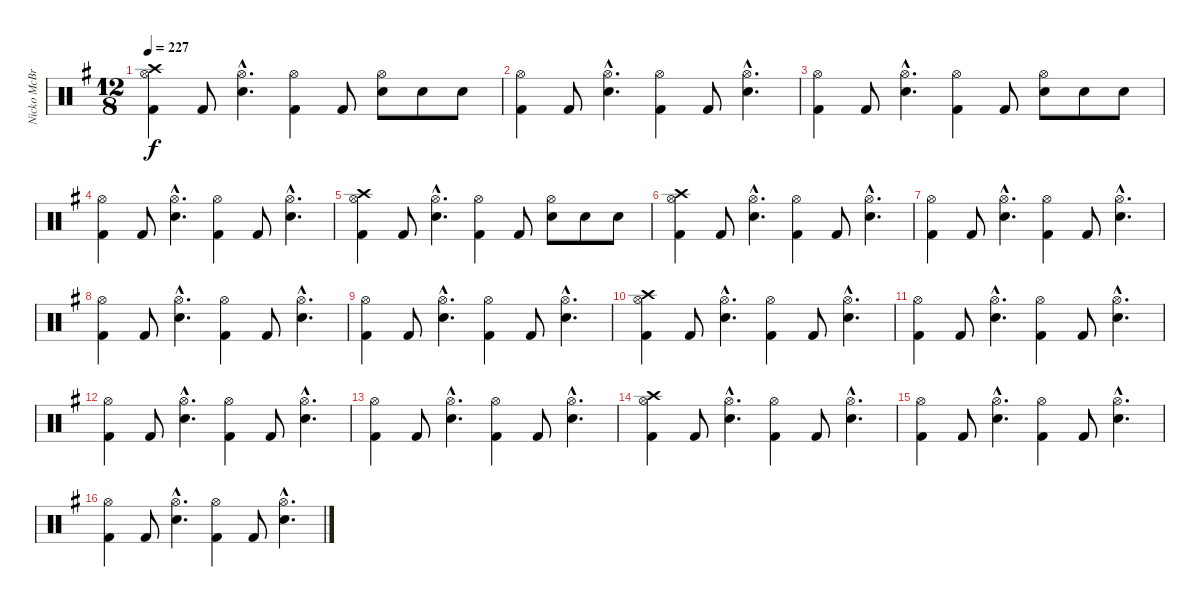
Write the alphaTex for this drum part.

\track ("Nicko McBrain" "Nicko McBr") {instrument percussion}
\staff {score}
\articulation defaults
\ts (12 8)
\tempo 227
\clef neutral
\ks g
("Kick (hit) 2" "Hi-Hat (open)" "Crash high (hit)").4{dy f} "Kick (hit) 2".8 ("Snare (hit) 2"{hac} "Hi-Hat (open)"{hac}).4{d} ("Kick (hit) 2" "Hi-Hat (open)").4 "Kick (hit) 2".8 ("Snare (hit) 2" "Hi-Hat (open)").8 "Snare (hit) 2".8 "Snare (hit) 2".8 |
("Kick (hit) 2" "Hi-Hat (open)").4 "Kick (hit) 2".8 ("Snare (hit) 2"{hac} "Hi-Hat (open)"{hac}).4{d} ("Kick (hit) 2" "Hi-Hat (open)").4 "Kick (hit) 2".8 ("Snare (hit) 2"{hac} "Hi-Hat (open)"{hac}).4{d} |
("Kick (hit) 2" "Hi-Hat (open)").4 "Kick (hit) 2".8 ("Snare (hit) 2"{hac} "Hi-Hat (open)"{hac}).4{d} ("Kick (hit) 2" "Hi-Hat (open)").4 "Kick (hit) 2".8 ("Snare (hit) 2" "Hi-Hat (open)").8 "Snare (hit) 2".8 "Snare (hit) 2".8 |
("Kick (hit) 2" "Hi-Hat (open)").4 "Kick (hit) 2".8 ("Snare (hit) 2"{hac} "Hi-Hat (open)"{hac}).4{d} ("Kick (hit) 2" "Hi-Hat (open)").4 "Kick (hit) 2".8 ("Snare (hit) 2"{hac} "Hi-Hat (open)"{hac}).4{d} |
("Kick (hit) 2" "Hi-Hat (open)" "Crash high (hit)").4 "Kick (hit) 2".8 ("Snare (hit) 2"{hac} "Hi-Hat (open)"{hac}).4{d} ("Kick (hit) 2" "Hi-Hat (open)").4 "Kick (hit) 2".8 ("Snare (hit) 2" "Hi-Hat (open)").8 "Snare (hit) 2".8 "Snare (hit) 2".8 |
("Kick (hit) 2" "Hi-Hat (open)" "Crash high (hit)").4 "Kick (hit) 2".8 ("Snare (hit) 2"{hac} "Hi-Hat (open)"{hac}).4{d} ("Kick (hit) 2" "Hi-Hat (open)").4 "Kick (hit) 2".8 ("Snare (hit) 2"{hac} "Hi-Hat (open)"{hac}).4{d} |
("Kick (hit) 2" "Hi-Hat (open)").4 "Kick (hit) 2".8 ("Snare (hit) 2"{hac} "Hi-Hat (open)"{hac}).4{d} ("Kick (hit) 2" "Hi-Hat (open)").4 "Kick (hit) 2".8 ("Snare (hit) 2"{hac} "Hi-Hat (open)"{hac}).4{d} |
("Kick (hit) 2" "Hi-Hat (open)").4 "Kick (hit) 2".8 ("Snare (hit) 2"{hac} "Hi-Hat (open)"{hac}).4{d} ("Kick (hit) 2" "Hi-Hat (open)").4 "Kick (hit) 2".8 ("Snare (hit) 2"{hac} "Hi-Hat (open)"{hac}).4{d} |
("Kick (hit) 2" "Hi-Hat (open)").4 "Kick (hit) 2".8 ("Snare (hit) 2"{hac} "Hi-Hat (open)"{hac}).4{d} ("Kick (hit) 2" "Hi-Hat (open)").4 "Kick (hit) 2".8 ("Snare (hit) 2"{hac} "Hi-Hat (open)"{hac}).4{d} |
("Kick (hit) 2" "Hi-Hat (open)" "Crash high (hit)").4 "Kick (hit) 2".8 ("Snare (hit) 2"{hac} "Hi-Hat (open)"{hac}).4{d} ("Kick (hit) 2" "Hi-Hat (open)").4 "Kick (hit) 2".8 ("Snare (hit) 2"{hac} "Hi-Hat (open)"{hac}).4{d} |
("Kick (hit) 2" "Hi-Hat (open)").4 "Kick (hit) 2".8 ("Snare (hit) 2"{hac} "Hi-Hat (open)"{hac}).4{d} ("Kick (hit) 2" "Hi-Hat (open)").4 "Kick (hit) 2".8 ("Snare (hit) 2"{hac} "Hi-Hat (open)"{hac}).4{d} |
("Kick (hit) 2" "Hi-Hat (open)").4 "Kick (hit) 2".8 ("Snare (hit) 2"{hac} "Hi-Hat (open)"{hac}).4{d} ("Kick (hit) 2" "Hi-Hat (open)").4 "Kick (hit) 2".8 ("Snare (hit) 2"{hac} "Hi-Hat (open)"{hac}).4{d} |
("Kick (hit) 2" "Hi-Hat (open)").4 "Kick (hit) 2".8 ("Snare (hit) 2"{hac} "Hi-Hat (open)"{hac}).4{d} ("Kick (hit) 2" "Hi-Hat (open)").4 "Kick (hit) 2".8 ("Snare (hit) 2"{hac} "Hi-Hat (open)"{hac}).4{d} |
("Kick (hit) 2" "Hi-Hat (open)" "Crash high (hit)").4 "Kick (hit) 2".8 ("Snare (hit) 2"{hac} "Hi-Hat (open)"{hac}).4{d} ("Kick (hit) 2" "Hi-Hat (open)").4 "Kick (hit) 2".8 ("Snare (hit) 2"{hac} "Hi-Hat (open)"{hac}).4{d} |
("Kick (hit) 2" "Hi-Hat (open)").4 "Kick (hit) 2".8 ("Snare (hit) 2"{hac} "Hi-Hat (open)"{hac}).4{d} ("Kick (hit) 2" "Hi-Hat (open)").4 "Kick (hit) 2".8 ("Snare (hit) 2"{hac} "Hi-Hat (open)"{hac}).4{d} |
("Kick (hit) 2" "Hi-Hat (open)").4 "Kick (hit) 2".8 ("Snare (hit) 2"{hac} "Hi-Hat (open)"{hac}).4{d} ("Kick (hit) 2" "Hi-Hat (open)").4 "Kick (hit) 2".8 ("Snare (hit) 2"{hac} "Hi-Hat (open)"{hac}).4{d}
